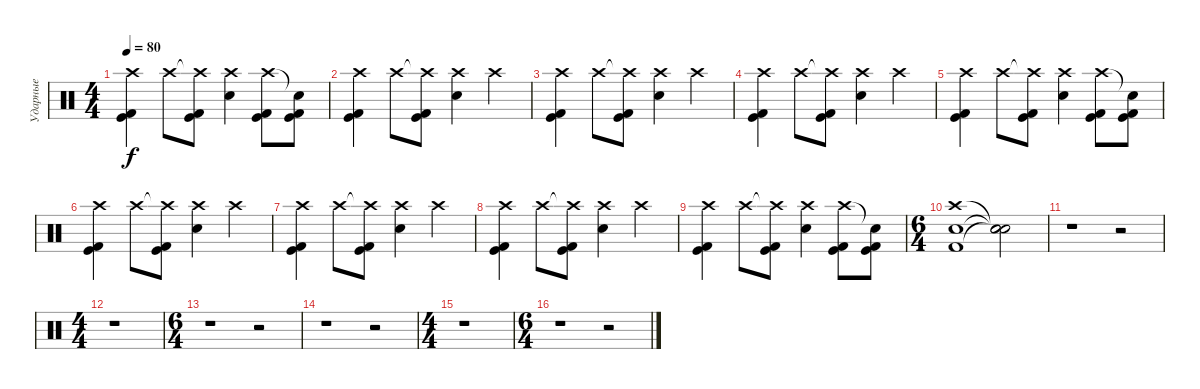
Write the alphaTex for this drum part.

\track ("Ударные" "Ударные") {instrument percussion}
\staff {score}
\articulation defaults
\ts (4 4)
\tempo 80
\clef neutral
\ks c
("Crash high (hit)" "Kick (hit)" "Kick (hit) 2").4{dy f} "Crash high (hit)".8 ("Crash high (hit)"{t} "Kick (hit)" "Kick (hit) 2").8 ("Crash high (hit)" "Electric Snare (hit)").4 ("Crash high (hit)" "Kick (hit)" "Kick (hit) 2").8 ("Snare (hit)"{t} "Kick (hit)" "Kick (hit) 2").8 |
("Crash high (hit)" "Kick (hit)" "Kick (hit) 2").4 "Crash high (hit)".8 ("Crash high (hit)"{t} "Kick (hit)" "Kick (hit) 2").8 ("Crash high (hit)" "Electric Snare (hit)").4 "Crash high (hit)".4 |
("Crash high (hit)" "Kick (hit)" "Kick (hit) 2").4 "Crash high (hit)".8 ("Crash high (hit)"{t} "Kick (hit)" "Kick (hit) 2").8 ("Crash high (hit)" "Electric Snare (hit)").4 "Crash high (hit)".4 |
("Crash high (hit)" "Kick (hit)" "Kick (hit) 2").4 "Crash high (hit)".8 ("Crash high (hit)"{t} "Kick (hit)" "Kick (hit) 2").8 ("Crash high (hit)" "Electric Snare (hit)").4 "Crash high (hit)".4 |
("Crash high (hit)" "Kick (hit)" "Kick (hit) 2").4 "Crash high (hit)".8 ("Crash high (hit)"{t} "Kick (hit)" "Kick (hit) 2").8 ("Crash high (hit)" "Electric Snare (hit)").4 ("Crash high (hit)" "Kick (hit)" "Kick (hit) 2").8 ("Snare (hit)"{t} "Kick (hit)" "Kick (hit) 2").8 |
("Crash high (hit)" "Kick (hit)" "Kick (hit) 2").4 "Crash high (hit)".8 ("Crash high (hit)"{t} "Kick (hit)" "Kick (hit) 2").8 ("Crash high (hit)" "Electric Snare (hit)").4 "Crash high (hit)".4 |
("Crash high (hit)" "Kick (hit)" "Kick (hit) 2").4 "Crash high (hit)".8 ("Crash high (hit)"{t} "Kick (hit)" "Kick (hit) 2").8 ("Crash high (hit)" "Electric Snare (hit)").4 "Crash high (hit)".4 |
("Crash high (hit)" "Kick (hit)" "Kick (hit) 2").4 "Crash high (hit)".8 ("Crash high (hit)"{t} "Kick (hit)" "Kick (hit) 2").8 ("Crash high (hit)" "Electric Snare (hit)").4 "Crash high (hit)".4 |
("Crash high (hit)" "Kick (hit)" "Kick (hit) 2").4 "Crash high (hit)".8 ("Crash high (hit)"{t} "Kick (hit)" "Kick (hit) 2").8 ("Crash high (hit)" "Electric Snare (hit)").4 ("Crash high (hit)" "Kick (hit)" "Kick (hit) 2").8 ("Snare (hit)"{t} "Kick (hit)" "Kick (hit) 2").8 |
\ts (6 4)
("Crash high (hit)" "Electric Snare (hit)" "Kick (hit) 2").1 ("Snare (hit)"{t} "Snare (hit)"{t} "Snare (hit)"{t}).2 |
r.1 r.2 |
\ts (4 4)
r.1 |
\ts (6 4)
r.1 r.2 |
r.1 r.2 |
\ts (4 4)
r.1 |
\ts (6 4)
r.1 r.2
